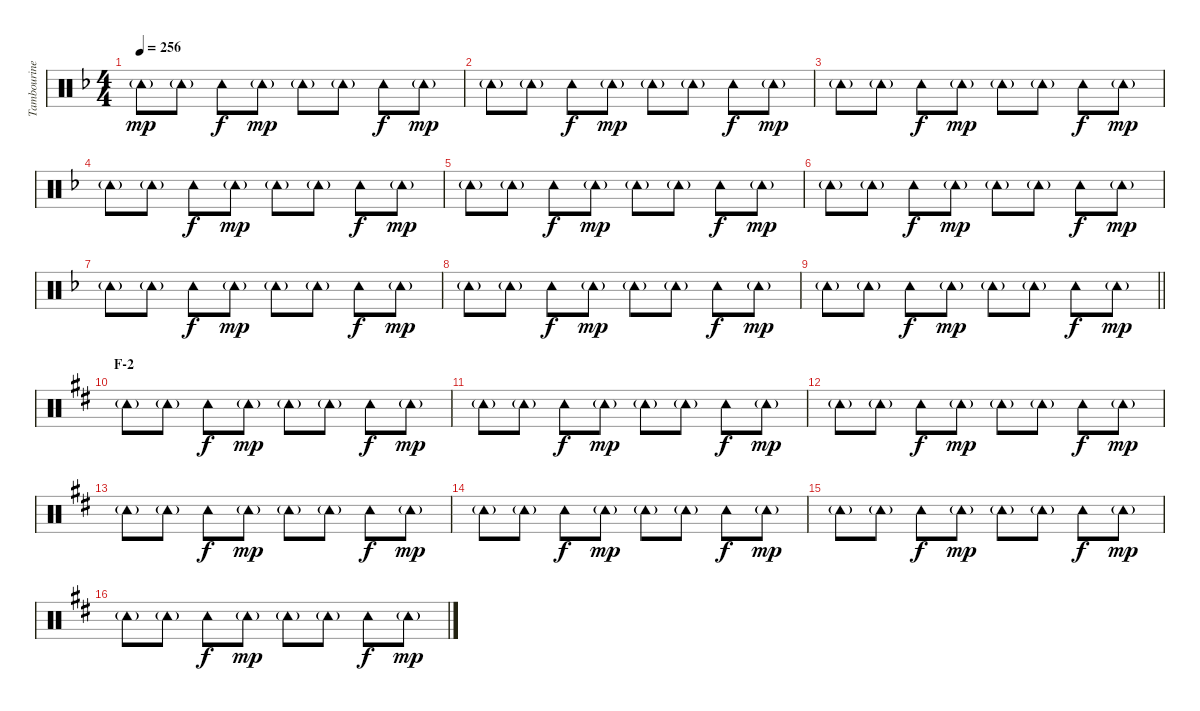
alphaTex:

\track ("Tambourine" "Tambourine") {instrument percussion}
\staff {score}
\articulation defaults
\ts (4 4)
\tempo 256
\clef neutral
\ks f "Tambourine (hit)"{g}.8{dy mp} "Tambourine (hit)"{g}.8 "Tambourine (hit)".8{dy f} "Tambourine (hit)"{g}.8{dy mp} "Tambourine (hit)"{g}.8 "Tambourine (hit)"{g}.8 "Tambourine (hit)".8{dy f} "Tambourine (hit)"{g}.8{dy mp}
|
"Tambourine (hit)"{g}.8 "Tambourine (hit)"{g}.8 "Tambourine (hit)".8{dy f} "Tambourine (hit)"{g}.8{dy mp} "Tambourine (hit)"{g}.8 "Tambourine (hit)"{g}.8 "Tambourine (hit)".8{dy f} "Tambourine (hit)"{g}.8{dy mp} |
"Tambourine (hit)"{g}.8 "Tambourine (hit)"{g}.8 "Tambourine (hit)".8{dy f} "Tambourine (hit)"{g}.8{dy mp} "Tambourine (hit)"{g}.8 "Tambourine (hit)"{g}.8 "Tambourine (hit)".8{dy f} "Tambourine (hit)"{g}.8{dy mp} |
"Tambourine (hit)"{g}.8 "Tambourine (hit)"{g}.8 "Tambourine (hit)".8{dy f} "Tambourine (hit)"{g}.8{dy mp} "Tambourine (hit)"{g}.8 "Tambourine (hit)"{g}.8 "Tambourine (hit)".8{dy f} "Tambourine (hit)"{g}.8{dy mp} |
"Tambourine (hit)"{g}.8 "Tambourine (hit)"{g}.8 "Tambourine (hit)".8{dy f} "Tambourine (hit)"{g}.8{dy mp} "Tambourine (hit)"{g}.8 "Tambourine (hit)"{g}.8 "Tambourine (hit)".8{dy f} "Tambourine (hit)"{g}.8{dy mp} |
"Tambourine (hit)"{g}.8 "Tambourine (hit)"{g}.8 "Tambourine (hit)".8{dy f} "Tambourine (hit)"{g}.8{dy mp} "Tambourine (hit)"{g}.8 "Tambourine (hit)"{g}.8 "Tambourine (hit)".8{dy f} "Tambourine (hit)"{g}.8{dy mp} |
"Tambourine (hit)"{g}.8 "Tambourine (hit)"{g}.8 "Tambourine (hit)".8{dy f} "Tambourine (hit)"{g}.8{dy mp} "Tambourine (hit)"{g}.8 "Tambourine (hit)"{g}.8 "Tambourine (hit)".8{dy f} "Tambourine (hit)"{g}.8{dy mp} |
"Tambourine (hit)"{g}.8 "Tambourine (hit)"{g}.8 "Tambourine (hit)".8{dy f} "Tambourine (hit)"{g}.8{dy mp} "Tambourine (hit)"{g}.8 "Tambourine (hit)"{g}.8 "Tambourine (hit)".8{dy f} "Tambourine (hit)"{g}.8{dy mp} |
\barLineRight lightlight "Tambourine (hit)"{g}.8 "Tambourine (hit)"{g}.8 "Tambourine (hit)".8{dy f} "Tambourine (hit)"{g}.8{dy mp} "Tambourine (hit)"{g}.8 "Tambourine (hit)"{g}.8 "Tambourine (hit)".8{dy f} "Tambourine (hit)"{g}.8{dy mp}
|
\section ("" "F-2")
\ks d "Tambourine (hit)"{g}.8 "Tambourine (hit)"{g}.8 "Tambourine (hit)".8{dy f} "Tambourine (hit)"{g}.8{dy mp} "Tambourine (hit)"{g}.8 "Tambourine (hit)"{g}.8 "Tambourine (hit)".8{dy f} "Tambourine (hit)"{g}.8{dy mp}
|
"Tambourine (hit)"{g}.8 "Tambourine (hit)"{g}.8 "Tambourine (hit)".8{dy f} "Tambourine (hit)"{g}.8{dy mp} "Tambourine (hit)"{g}.8 "Tambourine (hit)"{g}.8 "Tambourine (hit)".8{dy f} "Tambourine (hit)"{g}.8{dy mp} |
"Tambourine (hit)"{g}.8 "Tambourine (hit)"{g}.8 "Tambourine (hit)".8{dy f} "Tambourine (hit)"{g}.8{dy mp} "Tambourine (hit)"{g}.8 "Tambourine (hit)"{g}.8 "Tambourine (hit)".8{dy f} "Tambourine (hit)"{g}.8{dy mp} |
"Tambourine (hit)"{g}.8 "Tambourine (hit)"{g}.8 "Tambourine (hit)".8{dy f} "Tambourine (hit)"{g}.8{dy mp} "Tambourine (hit)"{g}.8 "Tambourine (hit)"{g}.8 "Tambourine (hit)".8{dy f} "Tambourine (hit)"{g}.8{dy mp} |
"Tambourine (hit)"{g}.8 "Tambourine (hit)"{g}.8 "Tambourine (hit)".8{dy f} "Tambourine (hit)"{g}.8{dy mp} "Tambourine (hit)"{g}.8 "Tambourine (hit)"{g}.8 "Tambourine (hit)".8{dy f} "Tambourine (hit)"{g}.8{dy mp} |
"Tambourine (hit)"{g}.8 "Tambourine (hit)"{g}.8 "Tambourine (hit)".8{dy f} "Tambourine (hit)"{g}.8{dy mp} "Tambourine (hit)"{g}.8 "Tambourine (hit)"{g}.8 "Tambourine (hit)".8{dy f} "Tambourine (hit)"{g}.8{dy mp} |
"Tambourine (hit)"{g}.8 "Tambourine (hit)"{g}.8 "Tambourine (hit)".8{dy f} "Tambourine (hit)"{g}.8{dy mp} "Tambourine (hit)"{g}.8 "Tambourine (hit)"{g}.8 "Tambourine (hit)".8{dy f} "Tambourine (hit)"{g}.8{dy mp}
